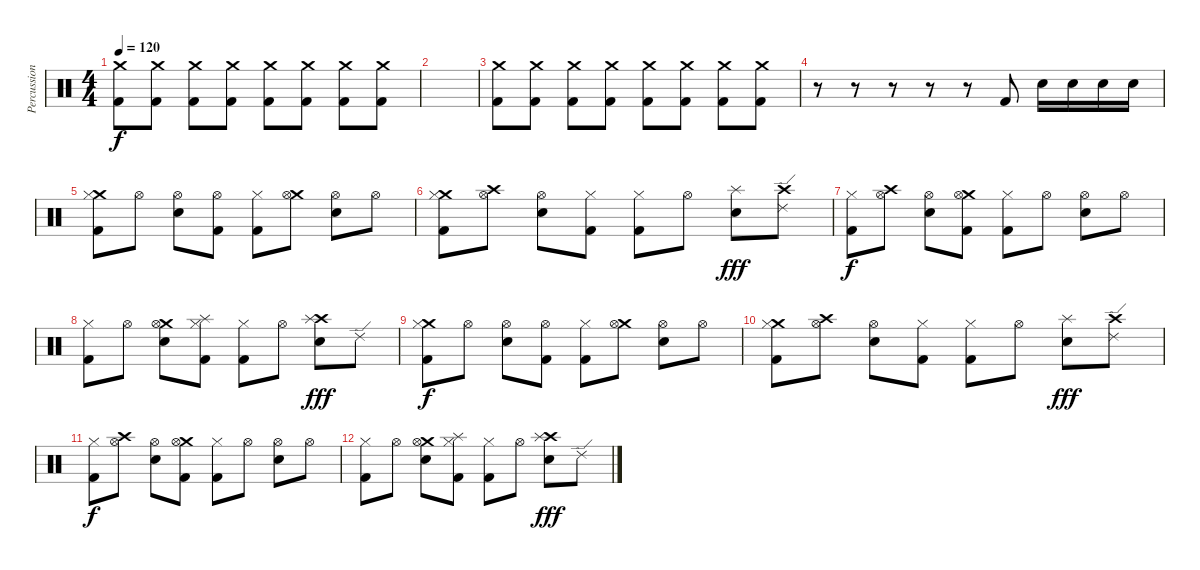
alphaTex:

\track ("Percussion" "Percussion") {instrument percussion}
\staff {score}
\articulation defaults
\ts (4 4)
\tempo 120
\clef neutral
\ks c
("Kick (hit) 2" "Crash medium (hit)").8{dy f} ("Kick (hit) 2" "Crash medium (hit)").8 ("Kick (hit) 2" "Crash medium (hit)").8 ("Kick (hit) 2" "Crash medium (hit)").8 ("Kick (hit) 2" "Crash medium (hit)").8 ("Kick (hit) 2" "Crash medium (hit)").8 ("Kick (hit) 2" "Crash medium (hit)").8 ("Kick (hit) 2" "Crash medium (hit)").8 |
|
("Kick (hit) 2" "Crash medium (hit)").8 ("Kick (hit) 2" "Crash medium (hit)").8 ("Kick (hit) 2" "Crash medium (hit)").8 ("Kick (hit) 2" "Crash medium (hit)").8 ("Kick (hit) 2" "Crash medium (hit)").8 ("Kick (hit) 2" "Crash medium (hit)").8 ("Kick (hit) 2" "Crash medium (hit)").8 ("Kick (hit) 2" "Crash medium (hit)").8 |
r.8 r.8 r.8 r.8 r.8 "Kick (hit) 2".8 "Electric Snare (hit)".16 "Electric Snare (hit)".16 "Electric Snare (hit)".16 "Electric Snare (hit)".16 |
("Crash medium (hit)" "Kick (hit) 2" "Hi-Hat (closed)").8 "Hi-Hat (open)".8 ("Electric Snare (hit)" "Hi-Hat (open)").8 ("Kick (hit) 2" "Hi-Hat (open)").8 ("Kick (hit) 2" "Hi-Hat (closed)").8 ("Crash medium (hit)" "Hi-Hat (open)").8 ("Electric Snare (hit)" "Hi-Hat (open)").8 "Hi-Hat (open)".8 |
("Crash medium (hit)" "Kick (hit) 2" "Hi-Hat (closed)").8 ("Crash high (hit)" "Hi-Hat (open)").8 ("Electric Snare (hit)" "Hi-Hat (open)").8 ("Kick (hit) 2" "Hi-Hat (closed)").8 ("Kick (hit) 2" "Hi-Hat (closed)").8 "Hi-Hat (open)".8 ("Electric Snare (hit)" "Splash (hit)").8{dy fff} ("Crash high (hit)" "Ride (edge) 2").8 |
("Kick (hit) 2" "Hi-Hat (closed)").8{dy f} ("Crash high (hit)" "Hi-Hat (open)").8 ("Electric Snare (hit)" "Hi-Hat (open)").8 ("Crash medium (hit)" "Kick (hit) 2" "Hi-Hat (open)").8 ("Kick (hit) 2" "Hi-Hat (closed)").8 "Hi-Hat (open)".8 ("Electric Snare (hit)" "Hi-Hat (open)").8 "Hi-Hat (open)".8 |
("Kick (hit) 2" "Hi-Hat (closed)").8 "Hi-Hat (open)".8 ("Crash medium (hit)" "Electric Snare (hit)" "Hi-Hat (open)").8 ("Splash (hit)" "Kick (hit) 2" "Hi-Hat (closed)").8 ("Kick (hit) 2" "Hi-Hat (closed)").8 "Hi-Hat (open)".8 ("Crash high (hit)" "Electric Snare (hit)" "Splash (hit)").8{dy fff} "Ride (edge) 2".8 |
("Crash medium (hit)" "Kick (hit) 2" "Hi-Hat (closed)").8{dy f} "Hi-Hat (open)".8 ("Electric Snare (hit)" "Hi-Hat (open)").8 ("Kick (hit) 2" "Hi-Hat (open)").8 ("Kick (hit) 2" "Hi-Hat (closed)").8 ("Crash medium (hit)" "Hi-Hat (open)").8 ("Electric Snare (hit)" "Hi-Hat (open)").8 "Hi-Hat (open)".8 |
("Crash medium (hit)" "Kick (hit) 2" "Hi-Hat (closed)").8 ("Crash high (hit)" "Hi-Hat (open)").8 ("Electric Snare (hit)" "Hi-Hat (open)").8 ("Kick (hit) 2" "Hi-Hat (closed)").8 ("Kick (hit) 2" "Hi-Hat (closed)").8 "Hi-Hat (open)".8 ("Electric Snare (hit)" "Splash (hit)").8{dy fff} ("Crash high (hit)" "Ride (edge) 2").8 |
("Kick (hit) 2" "Hi-Hat (closed)").8{dy f} ("Crash high (hit)" "Hi-Hat (open)").8 ("Electric Snare (hit)" "Hi-Hat (open)").8 ("Crash medium (hit)" "Kick (hit) 2" "Hi-Hat (open)").8 ("Kick (hit) 2" "Hi-Hat (closed)").8 "Hi-Hat (open)".8 ("Electric Snare (hit)" "Hi-Hat (open)").8 "Hi-Hat (open)".8 |
("Kick (hit) 2" "Hi-Hat (closed)").8 "Hi-Hat (open)".8 ("Crash medium (hit)" "Electric Snare (hit)" "Hi-Hat (open)").8 ("Splash (hit)" "Kick (hit) 2" "Hi-Hat (closed)").8 ("Kick (hit) 2" "Hi-Hat (closed)").8 "Hi-Hat (open)".8 ("Crash high (hit)" "Electric Snare (hit)" "Splash (hit)").8{dy fff} "Ride (edge) 2".8
